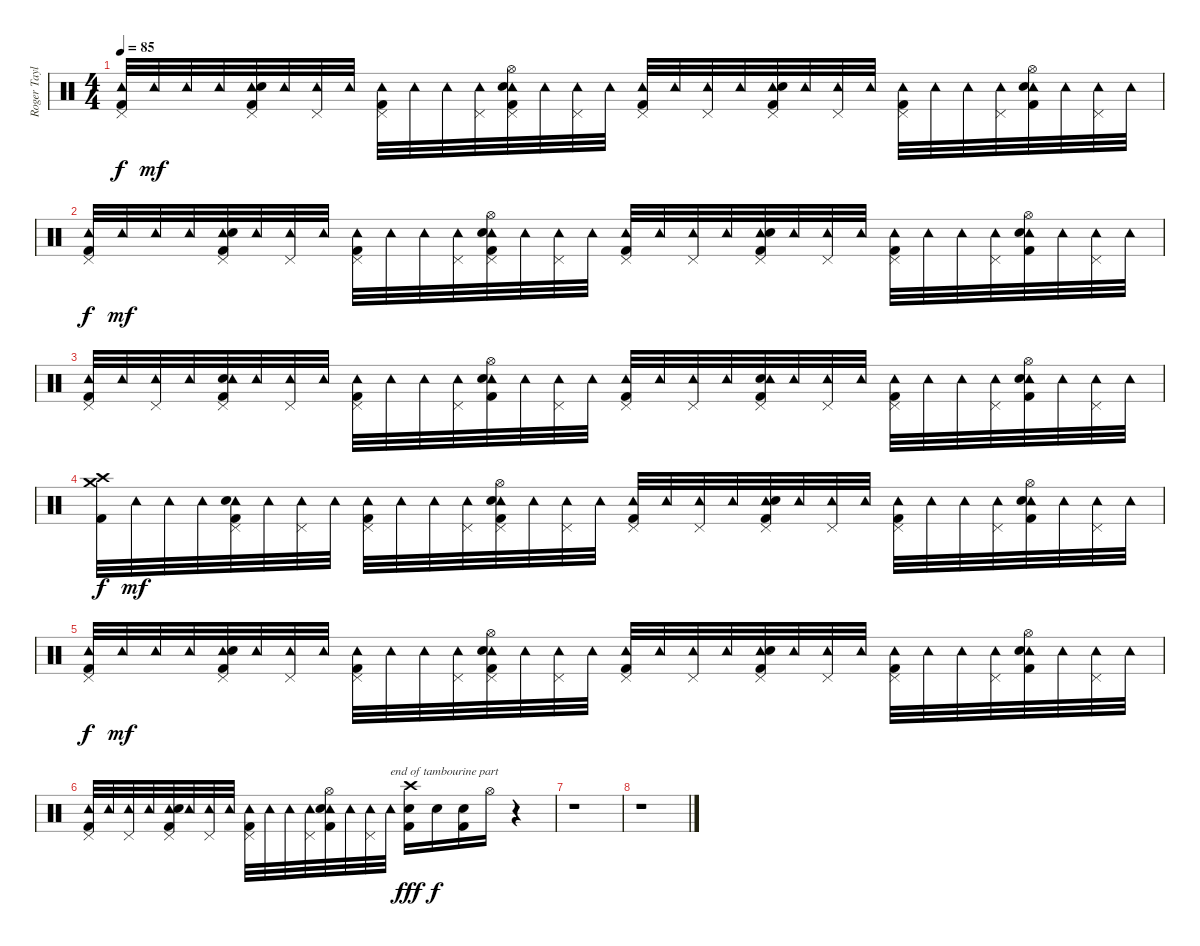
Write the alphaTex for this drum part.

\track ("Roger Taylor - Drums" "Roger Tayl") {instrument percussion}
\staff {score}
\articulation defaults
\ts (4 4)
\tempo 85
\clef neutral
\ks c
("Tambourine (hit)" "Pedal Hi-Hat (hit)" "Kick (hit) 2").32{dy f} "Tambourine (hit)".32{dy mf} "Tambourine (hit)".32 "Tambourine (hit)".32 ("Tambourine (hit)" "Pedal Hi-Hat (hit)" "Electric Snare (hit)" "Kick (hit) 2").32 "Tambourine (hit)".32 ("Tambourine (hit)" "Pedal Hi-Hat (hit)").32 "Tambourine (hit)".32 ("Tambourine (hit)" "Pedal Hi-Hat (hit)" "Kick (hit) 2").32 "Tambourine (hit)".32 "Tambourine (hit)".32 ("Tambourine (hit)" "Pedal Hi-Hat (hit)").32 ("Tambourine (hit)" "Pedal Hi-Hat (hit)" "Electric Snare (hit)" "Hi-Hat (open)" "Kick (hit) 2").32 "Tambourine (hit)".32 ("Tambourine (hit)" "Pedal Hi-Hat (hit)").32 "Tambourine (hit)".32 ("Tambourine (hit)" "Pedal Hi-Hat (hit)" "Kick (hit) 2").32 "Tambourine (hit)".32 ("Tambourine (hit)" "Pedal Hi-Hat (hit)").32 "Tambourine (hit)".32 ("Tambourine (hit)" "Pedal Hi-Hat (hit)" "Electric Snare (hit)" "Kick (hit) 2").32 "Tambourine (hit)".32 ("Tambourine (hit)" "Pedal Hi-Hat (hit)").32 "Tambourine (hit)".32 ("Tambourine (hit)" "Pedal Hi-Hat (hit)" "Kick (hit) 2").32 "Tambourine (hit)".32 "Tambourine (hit)".32 ("Tambourine (hit)" "Pedal Hi-Hat (hit)").32 ("Tambourine (hit)" "Electric Snare (hit)" "Hi-Hat (open)" "Kick (hit) 2").32 "Tambourine (hit)".32 ("Tambourine (hit)" "Pedal Hi-Hat (hit)").32 "Tambourine (hit)".32 |
("Tambourine (hit)" "Pedal Hi-Hat (hit)" "Kick (hit) 2").32{dy f} "Tambourine (hit)".32{dy mf} "Tambourine (hit)".32 "Tambourine (hit)".32 ("Tambourine (hit)" "Pedal Hi-Hat (hit)" "Electric Snare (hit)" "Kick (hit) 2").32 "Tambourine (hit)".32 ("Tambourine (hit)" "Pedal Hi-Hat (hit)").32 "Tambourine (hit)".32 ("Tambourine (hit)" "Pedal Hi-Hat (hit)" "Kick (hit) 2").32 "Tambourine (hit)".32 "Tambourine (hit)".32 ("Tambourine (hit)" "Pedal Hi-Hat (hit)").32 ("Tambourine (hit)" "Pedal Hi-Hat (hit)" "Electric Snare (hit)" "Hi-Hat (open)" "Kick (hit) 2").32 "Tambourine (hit)".32 ("Tambourine (hit)" "Pedal Hi-Hat (hit)").32 "Tambourine (hit)".32 ("Tambourine (hit)" "Pedal Hi-Hat (hit)" "Kick (hit) 2").32 "Tambourine (hit)".32 ("Tambourine (hit)" "Pedal Hi-Hat (hit)").32 "Tambourine (hit)".32 ("Tambourine (hit)" "Pedal Hi-Hat (hit)" "Electric Snare (hit)" "Kick (hit) 2").32 "Tambourine (hit)".32 ("Tambourine (hit)" "Pedal Hi-Hat (hit)").32 "Tambourine (hit)".32 ("Tambourine (hit)" "Pedal Hi-Hat (hit)" "Kick (hit) 2").32 "Tambourine (hit)".32 "Tambourine (hit)".32 ("Tambourine (hit)" "Pedal Hi-Hat (hit)").32 ("Tambourine (hit)" "Electric Snare (hit)" "Hi-Hat (open)" "Kick (hit) 2").32 "Tambourine (hit)".32 ("Tambourine (hit)" "Pedal Hi-Hat (hit)").32 "Tambourine (hit)".32 |
("Tambourine (hit)" "Kick (hit) 2" "Pedal Hi-Hat (hit)").32 "Tambourine (hit)".32 ("Pedal Hi-Hat (hit)" "Tambourine (hit)").32 "Tambourine (hit)".32 ("Pedal Hi-Hat (hit)" "Electric Snare (hit)" "Tambourine (hit)" "Kick (hit) 2").32 "Tambourine (hit)".32 ("Pedal Hi-Hat (hit)" "Tambourine (hit)").32 "Tambourine (hit)".32 ("Kick (hit) 2" "Tambourine (hit)" "Pedal Hi-Hat (hit)").32 "Tambourine (hit)".32 "Tambourine (hit)".32 ("Pedal Hi-Hat (hit)" "Tambourine (hit)").32 ("Tambourine (hit)" "Hi-Hat (open)" "Kick (hit) 2" "Electric Snare (hit)").32 "Tambourine (hit)".32 ("Pedal Hi-Hat (hit)" "Tambourine (hit)").32 "Tambourine (hit)".32 ("Tambourine (hit)" "Kick (hit) 2" "Pedal Hi-Hat (hit)").32 "Tambourine (hit)".32 ("Pedal Hi-Hat (hit)" "Tambourine (hit)").32 "Tambourine (hit)".32 ("Pedal Hi-Hat (hit)" "Electric Snare (hit)" "Tambourine (hit)" "Kick (hit) 2").32 "Tambourine (hit)".32 ("Pedal Hi-Hat (hit)" "Tambourine (hit)").32 "Tambourine (hit)".32 ("Tambourine (hit)" "Kick (hit) 2" "Pedal Hi-Hat (hit)").32 "Tambourine (hit)".32 "Tambourine (hit)".32 ("Tambourine (hit)" "Pedal Hi-Hat (hit)").32 ("Hi-Hat (open)" "Tambourine (hit)" "Electric Snare (hit)" "Kick (hit) 2").32 "Tambourine (hit)".32 ("Pedal Hi-Hat (hit)" "Tambourine (hit)").32 "Tambourine (hit)".32 |
("Crash medium (hit)" "Crash high (hit)" "Kick (hit) 2").32{dy f} "Tambourine (hit)".32{dy mf} "Tambourine (hit)".32 "Tambourine (hit)".32 ("Tambourine (hit)" "Pedal Hi-Hat (hit)" "Electric Snare (hit)" "Kick (hit) 2").32 "Tambourine (hit)".32 ("Tambourine (hit)" "Pedal Hi-Hat (hit)").32 "Tambourine (hit)".32 ("Tambourine (hit)" "Pedal Hi-Hat (hit)" "Kick (hit) 2").32 "Tambourine (hit)".32 "Tambourine (hit)".32 ("Tambourine (hit)" "Pedal Hi-Hat (hit)").32 ("Tambourine (hit)" "Pedal Hi-Hat (hit)" "Electric Snare (hit)" "Hi-Hat (open)" "Kick (hit) 2").32 "Tambourine (hit)".32 ("Tambourine (hit)" "Pedal Hi-Hat (hit)").32 "Tambourine (hit)".32 ("Tambourine (hit)" "Pedal Hi-Hat (hit)" "Kick (hit) 2").32 "Tambourine (hit)".32 ("Tambourine (hit)" "Pedal Hi-Hat (hit)").32 "Tambourine (hit)".32 ("Tambourine (hit)" "Pedal Hi-Hat (hit)" "Electric Snare (hit)" "Kick (hit) 2").32 "Tambourine (hit)".32 ("Tambourine (hit)" "Pedal Hi-Hat (hit)").32 "Tambourine (hit)".32 ("Tambourine (hit)" "Pedal Hi-Hat (hit)" "Kick (hit) 2").32 "Tambourine (hit)".32 "Tambourine (hit)".32 ("Tambourine (hit)" "Pedal Hi-Hat (hit)").32 ("Tambourine (hit)" "Electric Snare (hit)" "Hi-Hat (open)" "Kick (hit) 2").32 "Tambourine (hit)".32 ("Tambourine (hit)" "Pedal Hi-Hat (hit)").32 "Tambourine (hit)".32 |
("Tambourine (hit)" "Pedal Hi-Hat (hit)" "Kick (hit) 2").32{dy f} "Tambourine (hit)".32{dy mf} "Tambourine (hit)".32 "Tambourine (hit)".32 ("Tambourine (hit)" "Pedal Hi-Hat (hit)" "Electric Snare (hit)" "Kick (hit) 2").32 "Tambourine (hit)".32 ("Tambourine (hit)" "Pedal Hi-Hat (hit)").32 "Tambourine (hit)".32 ("Tambourine (hit)" "Pedal Hi-Hat (hit)" "Kick (hit) 2").32 "Tambourine (hit)".32 "Tambourine (hit)".32 ("Tambourine (hit)" "Pedal Hi-Hat (hit)").32 ("Tambourine (hit)" "Pedal Hi-Hat (hit)" "Electric Snare (hit)" "Hi-Hat (open)" "Kick (hit) 2").32 "Tambourine (hit)".32 ("Tambourine (hit)" "Pedal Hi-Hat (hit)").32 "Tambourine (hit)".32 ("Tambourine (hit)" "Pedal Hi-Hat (hit)" "Kick (hit) 2").32 "Tambourine (hit)".32 ("Tambourine (hit)" "Pedal Hi-Hat (hit)").32 "Tambourine (hit)".32 ("Tambourine (hit)" "Pedal Hi-Hat (hit)" "Electric Snare (hit)" "Kick (hit) 2").32 "Tambourine (hit)".32 ("Tambourine (hit)" "Pedal Hi-Hat (hit)").32 "Tambourine (hit)".32 ("Tambourine (hit)" "Pedal Hi-Hat (hit)" "Kick (hit) 2").32 "Tambourine (hit)".32 "Tambourine (hit)".32 ("Tambourine (hit)" "Pedal Hi-Hat (hit)").32 ("Tambourine (hit)" "Electric Snare (hit)" "Hi-Hat (open)" "Kick (hit) 2").32 "Tambourine (hit)".32 ("Tambourine (hit)" "Pedal Hi-Hat (hit)").32 "Tambourine (hit)".32 |
("Tambourine (hit)" "Pedal Hi-Hat (hit)" "Kick (hit) 2").32 "Tambourine (hit)".32 ("Tambourine (hit)" "Pedal Hi-Hat (hit)").32 "Tambourine (hit)".32 ("Tambourine (hit)" "Pedal Hi-Hat (hit)" "Electric Snare (hit)" "Kick (hit) 2").32 "Tambourine (hit)".32 ("Pedal Hi-Hat (hit)" "Tambourine (hit)").32 "Tambourine (hit)".32 ("Tambourine (hit)" "Pedal Hi-Hat (hit)" "Kick (hit) 2").32 "Tambourine (hit)".32 "Tambourine (hit)".32 ("Tambourine (hit)" "Pedal Hi-Hat (hit)").32 ("Tambourine (hit)" "Electric Snare (hit)" "Hi-Hat (open)" "Kick (hit) 2").32 "Tambourine (hit)".32 ("Tambourine (hit)" "Pedal Hi-Hat (hit)").32 "Tambourine (hit)".32{txt "end of tambourine part"} ("Crash high (hit)" "Electric Snare (hit)" "Kick (hit) 2").16{dy fff} "Electric Snare (hit)".16{dy f} ("Electric Snare (hit)" "Kick (hit) 2").16 "Hi-Hat (open)".16 r.4 |
r.1 |
r.1
